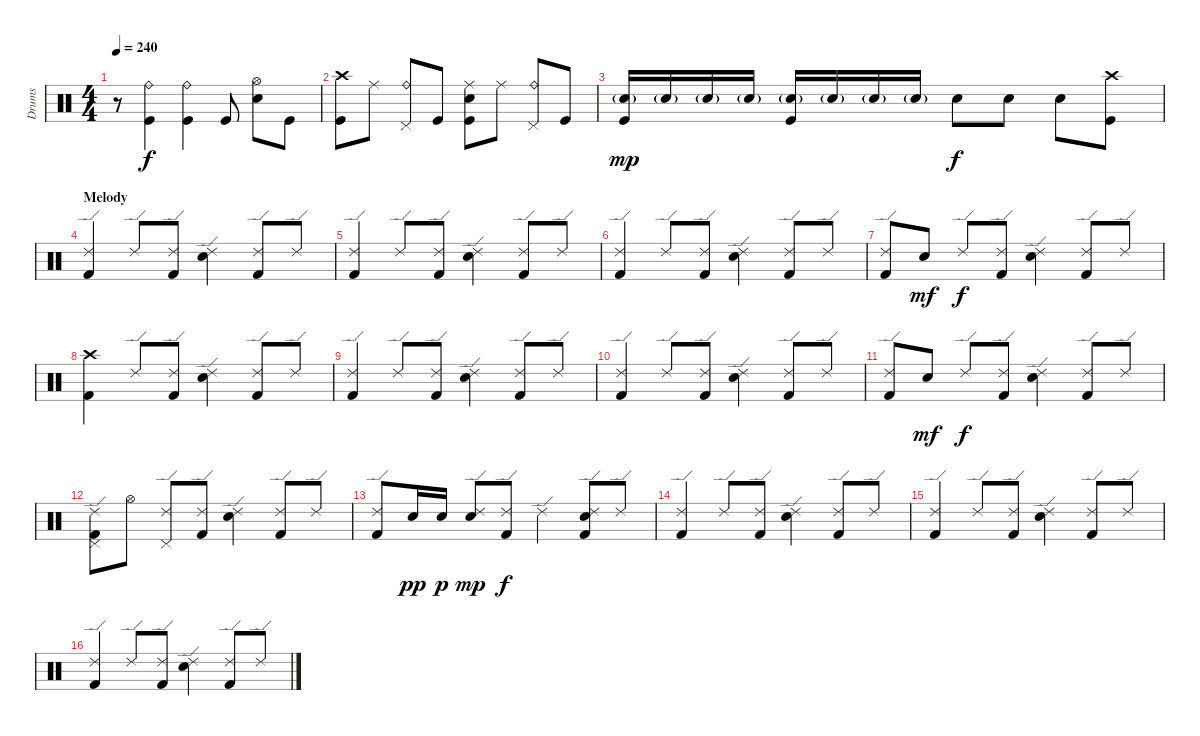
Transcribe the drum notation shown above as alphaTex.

\track ("Drums" "Drums") {instrument percussion}
\staff {score}
\articulation defaults
\ts (4 4)
\tempo 240
\clef neutral
\ks c
r.8{dy f} ("Ride (bell)" "Kick (hit)").4 ("Ride (bell)" "Kick (hit)").4 "Kick (hit)".8 ("Hi-Hat (open)" "Electric Snare (hit)").8 "Kick (hit)".8 |
("Crash high (hit)" "Kick (hit)").8 "Ride (middle)".8 ("Ride (bell)" "Pedal Hi-Hat (hit)").8 "Kick (hit)".8 ("Ride (middle)" "Electric Snare (hit)" "Kick (hit)").8 "Ride (middle)".8 ("Ride (bell)" "Pedal Hi-Hat (hit)").8 "Kick (hit)".8 |
("Electric Snare (hit)"{g} "Kick (hit)").16{dy mp} "Electric Snare (hit)"{g}.16 "Electric Snare (hit)"{g}.16 "Electric Snare (hit)"{g}.16 ("Electric Snare (hit)"{g} "Kick (hit)").16 "Electric Snare (hit)"{g}.16 "Electric Snare (hit)"{g}.16 "Electric Snare (hit)"{g}.16 "Electric Snare (hit)".8{dy f} "Electric Snare (hit)".8 "Electric Snare (hit)".8 ("Crash high (hit)" "Kick (hit)").8 |
\section ("" "Melody")
("Ride (edge) 2" "Kick (hit) 2").4 "Ride (edge) 2".8 ("Ride (edge) 2" "Kick (hit) 2").8 ("Ride (edge) 2" "Electric Snare (hit)").4 ("Ride (edge) 2" "Kick (hit) 2").8 "Ride (edge) 2".8 |
("Ride (edge) 2" "Kick (hit) 2").4 "Ride (edge) 2".8 ("Ride (edge) 2" "Kick (hit) 2").8 ("Ride (edge) 2" "Electric Snare (hit)").4 ("Ride (edge) 2" "Kick (hit) 2").8 "Ride (edge) 2".8 |
("Ride (edge) 2" "Kick (hit) 2").4 "Ride (edge) 2".8 ("Ride (edge) 2" "Kick (hit) 2").8 ("Ride (edge) 2" "Electric Snare (hit)").4 ("Ride (edge) 2" "Kick (hit) 2").8 "Ride (edge) 2".8 |
("Ride (edge) 2" "Kick (hit) 2").8 "Electric Snare (hit)".8{dy mf} "Ride (edge) 2".8{dy f} ("Ride (edge) 2" "Kick (hit) 2").8 ("Ride (edge) 2" "Electric Snare (hit)").4 ("Ride (edge) 2" "Kick (hit) 2").8 "Ride (edge) 2".8 |
("Crash high (hit)" "Kick (hit) 2").4 "Ride (edge) 2".8 ("Ride (edge) 2" "Kick (hit) 2").8 ("Ride (edge) 2" "Electric Snare (hit)").4 ("Ride (edge) 2" "Kick (hit) 2").8 "Ride (edge) 2".8 |
("Ride (edge) 2" "Kick (hit) 2").4 "Ride (edge) 2".8 ("Ride (edge) 2" "Kick (hit) 2").8 ("Ride (edge) 2" "Electric Snare (hit)").4 ("Ride (edge) 2" "Kick (hit) 2").8 "Ride (edge) 2".8 |
("Ride (edge) 2" "Kick (hit) 2").4 "Ride (edge) 2".8 ("Ride (edge) 2" "Kick (hit) 2").8 ("Ride (edge) 2" "Electric Snare (hit)").4 ("Ride (edge) 2" "Kick (hit) 2").8 "Ride (edge) 2".8 |
("Ride (edge) 2" "Kick (hit) 2").8 "Electric Snare (hit)".8{dy mf} "Ride (edge) 2".8{dy f} ("Ride (edge) 2" "Kick (hit) 2").8 ("Ride (edge) 2" "Electric Snare (hit)").4 ("Ride (edge) 2" "Kick (hit) 2").8 "Ride (edge) 2".8 |
("Ride (edge) 2" "Pedal Hi-Hat (hit)" "Kick (hit) 2").8 "Hi-Hat (open)".8 ("Ride (edge) 2" "Pedal Hi-Hat (hit)").8 ("Ride (edge) 2" "Kick (hit) 2").8 ("Ride (edge) 2" "Electric Snare (hit)").4 ("Ride (edge) 2" "Kick (hit) 2").8 "Ride (edge) 2".8 |
("Ride (edge) 2" "Kick (hit) 2").8 "Electric Snare (hit)".16{dy pp} "Electric Snare (hit)".16{dy p} ("Ride (edge) 2" "Electric Snare (hit)").8{dy mp} ("Ride (edge) 2" "Kick (hit) 2").8{dy f} "Ride (edge) 2".4 ("Ride (edge) 2" "Electric Snare (hit)" "Kick (hit) 2").8 "Ride (edge) 2".8 |
("Ride (edge) 2" "Kick (hit) 2").4 "Ride (edge) 2".8 ("Ride (edge) 2" "Kick (hit) 2").8 ("Ride (edge) 2" "Electric Snare (hit)").4 ("Ride (edge) 2" "Kick (hit) 2").8 "Ride (edge) 2".8 |
("Ride (edge) 2" "Kick (hit) 2").4 "Ride (edge) 2".8 ("Ride (edge) 2" "Kick (hit) 2").8 ("Ride (edge) 2" "Electric Snare (hit)").4 ("Ride (edge) 2" "Kick (hit) 2").8 "Ride (edge) 2".8 |
("Ride (edge) 2" "Kick (hit) 2").4 "Ride (edge) 2".8 ("Ride (edge) 2" "Kick (hit) 2").8 ("Ride (edge) 2" "Electric Snare (hit)").4 ("Ride (edge) 2" "Kick (hit) 2").8 "Ride (edge) 2".8
